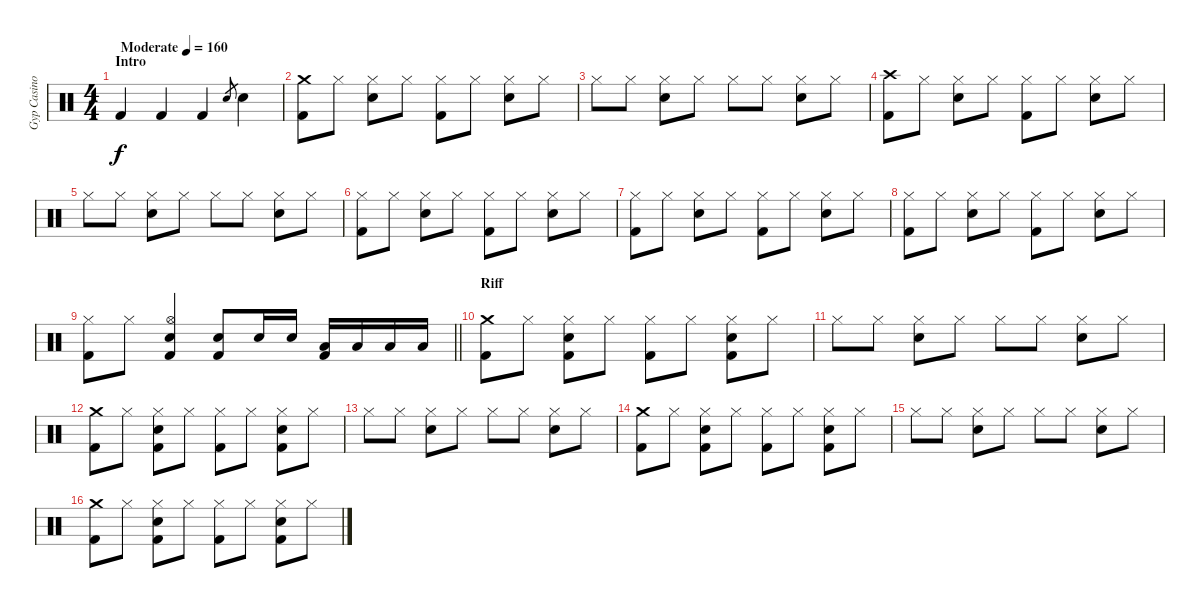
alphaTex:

\track ("Gyp Casino" "Gyp Casino") {instrument percussion}
\staff {score}
\articulation defaults
\ts (4 4)
\section ("" "Intro")
\tempo (160 "Moderate")
\clef neutral
\ks c "Kick (hit) 2".4{dy f} "Kick (hit) 2".4 "Kick (hit) 2".4 "Snare (hit) 2".8{gr} "Snare (hit) 2".4
|
("Crash medium (hit)" "Kick (hit) 2").8 "Hi-Hat (closed)".8 ("Hi-Hat (closed)" "Snare (hit) 2").8 "Hi-Hat (closed)".8 ("Hi-Hat (closed)" "Kick (hit) 2").8 "Hi-Hat (closed)".8 ("Hi-Hat (closed)" "Snare (hit) 2").8 "Hi-Hat (closed)".8 |
"Hi-Hat (closed)".8 "Hi-Hat (closed)".8 ("Hi-Hat (closed)" "Snare (hit) 2").8 "Hi-Hat (closed)".8 "Hi-Hat (closed)".8 "Hi-Hat (closed)".8 ("Hi-Hat (closed)" "Snare (hit) 2").8 "Hi-Hat (closed)".8 |
("Crash high (hit)" "Kick (hit) 2").8 "Hi-Hat (closed)".8 ("Hi-Hat (closed)" "Snare (hit) 2").8 "Hi-Hat (closed)".8 ("Hi-Hat (closed)" "Kick (hit) 2").8 "Hi-Hat (closed)".8 ("Hi-Hat (closed)" "Snare (hit) 2").8 "Hi-Hat (closed)".8 |
"Hi-Hat (closed)".8 "Hi-Hat (closed)".8 ("Hi-Hat (closed)" "Snare (hit) 2").8 "Hi-Hat (closed)".8 "Hi-Hat (closed)".8 "Hi-Hat (closed)".8 ("Hi-Hat (closed)" "Snare (hit) 2").8 "Hi-Hat (closed)".8 |
("Hi-Hat (closed)" "Kick (hit) 2").8 "Hi-Hat (closed)".8 ("Hi-Hat (closed)" "Snare (hit) 2").8 "Hi-Hat (closed)".8 ("Hi-Hat (closed)" "Kick (hit) 2").8 "Hi-Hat (closed)".8 ("Hi-Hat (closed)" "Snare (hit) 2").8 "Hi-Hat (closed)".8 |
("Hi-Hat (closed)" "Kick (hit) 2").8 "Hi-Hat (closed)".8 ("Hi-Hat (closed)" "Snare (hit) 2").8 "Hi-Hat (closed)".8 ("Hi-Hat (closed)" "Kick (hit) 2").8 "Hi-Hat (closed)".8 ("Hi-Hat (closed)" "Snare (hit) 2").8 "Hi-Hat (closed)".8 |
("Hi-Hat (closed)" "Kick (hit) 2").8 "Hi-Hat (closed)".8 ("Hi-Hat (closed)" "Snare (hit) 2").8 "Hi-Hat (closed)".8 ("Hi-Hat (closed)" "Kick (hit) 2").8 "Hi-Hat (closed)".8 ("Hi-Hat (closed)" "Snare (hit) 2").8 "Hi-Hat (closed)".8 |
\barLineRight lightlight
("Hi-Hat (closed)" "Kick (hit) 2").8 "Hi-Hat (closed)".8 ("Hi-Hat (open)" "Electric Snare (hit)" "Kick (hit) 2").4 ("Electric Snare (hit)" "Kick (hit) 2").8 "Electric Snare (hit)".16 "Electric Snare (hit)".16 ("Low Tom (hit)" "Kick (hit) 2").16 "Low Tom (hit)".16 "Low Tom (hit)".16 "Low Tom (hit)".16 |
\section ("" "Riff")
("Crash medium (hit)" "Kick (hit) 2").8 "Hi-Hat (closed)".8 ("Snare (hit) 2" "Hi-Hat (closed)" "Kick (hit) 2").8 "Hi-Hat (closed)".8 ("Hi-Hat (closed)" "Kick (hit) 2").8 "Hi-Hat (closed)".8 ("Snare (hit) 2" "Hi-Hat (closed)" "Kick (hit) 2").8 "Hi-Hat (closed)".8 |
"Hi-Hat (closed)".8 "Hi-Hat (closed)".8 ("Hi-Hat (closed)" "Snare (hit) 2").8 "Hi-Hat (closed)".8 "Hi-Hat (closed)".8 "Hi-Hat (closed)".8 ("Hi-Hat (closed)" "Snare (hit) 2").8 "Hi-Hat (closed)".8 |
("Crash medium (hit)" "Kick (hit) 2").8 "Hi-Hat (closed)".8 ("Snare (hit) 2" "Hi-Hat (closed)" "Kick (hit) 2").8 "Hi-Hat (closed)".8 ("Hi-Hat (closed)" "Kick (hit) 2").8 "Hi-Hat (closed)".8 ("Snare (hit) 2" "Hi-Hat (closed)" "Kick (hit) 2").8 "Hi-Hat (closed)".8 |
"Hi-Hat (closed)".8 "Hi-Hat (closed)".8 ("Hi-Hat (closed)" "Snare (hit) 2").8 "Hi-Hat (closed)".8 "Hi-Hat (closed)".8 "Hi-Hat (closed)".8 ("Hi-Hat (closed)" "Snare (hit) 2").8 "Hi-Hat (closed)".8 |
("Crash medium (hit)" "Kick (hit) 2").8 "Hi-Hat (closed)".8 ("Snare (hit) 2" "Hi-Hat (closed)" "Kick (hit) 2").8 "Hi-Hat (closed)".8 ("Hi-Hat (closed)" "Kick (hit) 2").8 "Hi-Hat (closed)".8 ("Snare (hit) 2" "Hi-Hat (closed)" "Kick (hit) 2").8 "Hi-Hat (closed)".8 |
"Hi-Hat (closed)".8 "Hi-Hat (closed)".8 ("Hi-Hat (closed)" "Snare (hit) 2").8 "Hi-Hat (closed)".8 "Hi-Hat (closed)".8 "Hi-Hat (closed)".8 ("Hi-Hat (closed)" "Snare (hit) 2").8 "Hi-Hat (closed)".8 |
("Crash medium (hit)" "Kick (hit) 2").8 "Hi-Hat (closed)".8 ("Snare (hit) 2" "Hi-Hat (closed)" "Kick (hit) 2").8 "Hi-Hat (closed)".8 ("Hi-Hat (closed)" "Kick (hit) 2").8 "Hi-Hat (closed)".8 ("Snare (hit) 2" "Hi-Hat (closed)" "Kick (hit) 2").8 "Hi-Hat (closed)".8
